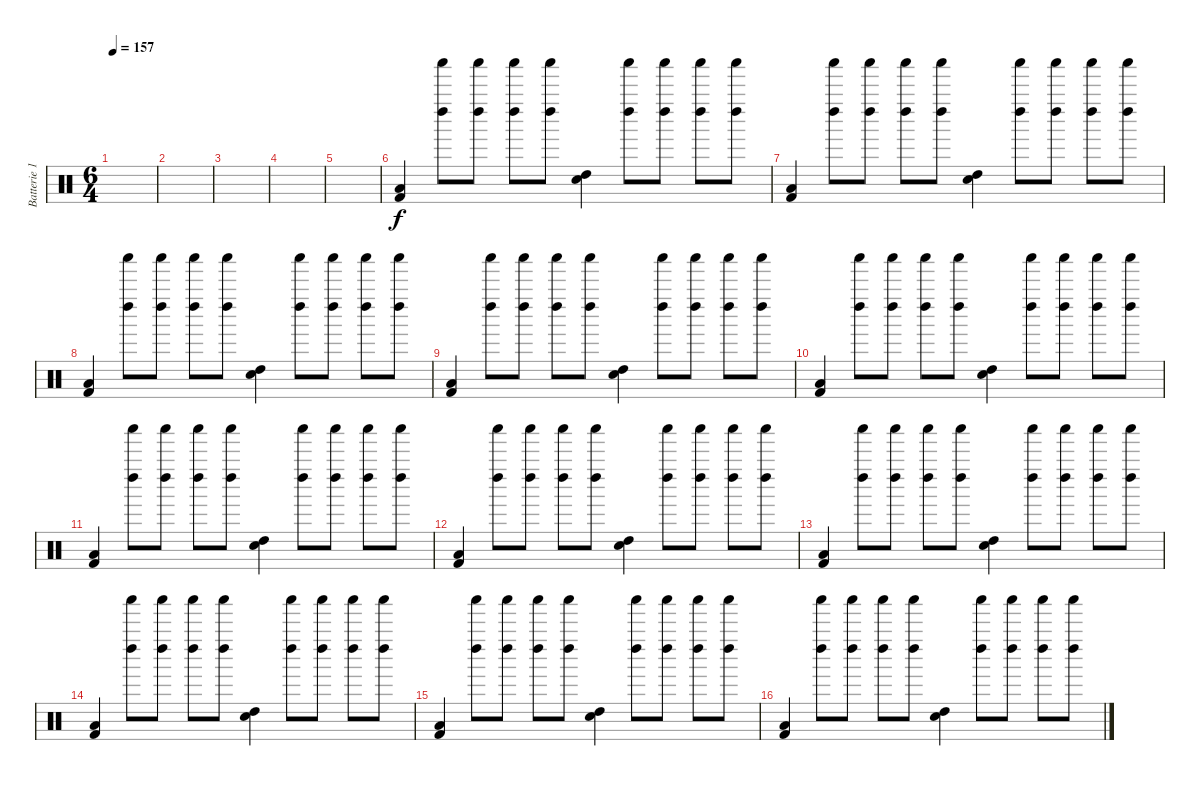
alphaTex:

\track ("Batterie 1" "Batterie 1") {instrument percussion}
\staff {score}
\articulation defaults
\ts (6 4)
\tempo 157
\clef neutral
\ks c
|
|
|
|
|
("Low Floor Tom (hit)" "Kick (hit) 2").4 ("Left Maraca (hit)" "Shaker (hit)").8 ("Left Maraca (hit)" "Shaker (hit)").8 ("Left Maraca (hit)" "Shaker (hit)").8 ("Left Maraca (hit)" "Shaker (hit)").8 ("High Tom (hit)" "Electric Snare (hit)").4 ("Left Maraca (hit)" "Shaker (hit)").8 ("Left Maraca (hit)" "Shaker (hit)").8 ("Left Maraca (hit)" "Shaker (hit)").8 ("Left Maraca (hit)" "Shaker (hit)").8 |
("Low Floor Tom (hit)" "Kick (hit) 2").4 ("Left Maraca (hit)" "Shaker (hit)").8 ("Left Maraca (hit)" "Shaker (hit)").8 ("Left Maraca (hit)" "Shaker (hit)").8 ("Left Maraca (hit)" "Shaker (hit)").8 ("High Tom (hit)" "Electric Snare (hit)").4 ("Left Maraca (hit)" "Shaker (hit)").8 ("Left Maraca (hit)" "Shaker (hit)").8 ("Left Maraca (hit)" "Shaker (hit)").8 ("Left Maraca (hit)" "Shaker (hit)").8 |
("Low Floor Tom (hit)" "Kick (hit) 2").4 ("Left Maraca (hit)" "Shaker (hit)").8 ("Left Maraca (hit)" "Shaker (hit)").8 ("Left Maraca (hit)" "Shaker (hit)").8 ("Left Maraca (hit)" "Shaker (hit)").8 ("High Tom (hit)" "Electric Snare (hit)").4 ("Left Maraca (hit)" "Shaker (hit)").8 ("Left Maraca (hit)" "Shaker (hit)").8 ("Left Maraca (hit)" "Shaker (hit)").8 ("Left Maraca (hit)" "Shaker (hit)").8 |
("Low Floor Tom (hit)" "Kick (hit) 2").4 ("Left Maraca (hit)" "Shaker (hit)").8 ("Left Maraca (hit)" "Shaker (hit)").8 ("Left Maraca (hit)" "Shaker (hit)").8 ("Left Maraca (hit)" "Shaker (hit)").8 ("High Tom (hit)" "Electric Snare (hit)").4 ("Left Maraca (hit)" "Shaker (hit)").8 ("Left Maraca (hit)" "Shaker (hit)").8 ("Left Maraca (hit)" "Shaker (hit)").8 ("Left Maraca (hit)" "Shaker (hit)").8 |
("Low Floor Tom (hit)" "Kick (hit) 2").4 ("Left Maraca (hit)" "Shaker (hit)").8 ("Left Maraca (hit)" "Shaker (hit)").8 ("Left Maraca (hit)" "Shaker (hit)").8 ("Left Maraca (hit)" "Shaker (hit)").8 ("High Tom (hit)" "Electric Snare (hit)").4 ("Left Maraca (hit)" "Shaker (hit)").8 ("Left Maraca (hit)" "Shaker (hit)").8 ("Left Maraca (hit)" "Shaker (hit)").8 ("Left Maraca (hit)" "Shaker (hit)").8 |
("Low Floor Tom (hit)" "Kick (hit) 2").4 ("Left Maraca (hit)" "Shaker (hit)").8 ("Left Maraca (hit)" "Shaker (hit)").8 ("Left Maraca (hit)" "Shaker (hit)").8 ("Left Maraca (hit)" "Shaker (hit)").8 ("High Tom (hit)" "Electric Snare (hit)").4 ("Left Maraca (hit)" "Shaker (hit)").8 ("Left Maraca (hit)" "Shaker (hit)").8 ("Left Maraca (hit)" "Shaker (hit)").8 ("Left Maraca (hit)" "Shaker (hit)").8 |
("Low Floor Tom (hit)" "Kick (hit) 2").4 ("Left Maraca (hit)" "Shaker (hit)").8 ("Left Maraca (hit)" "Shaker (hit)").8 ("Left Maraca (hit)" "Shaker (hit)").8 ("Left Maraca (hit)" "Shaker (hit)").8 ("High Tom (hit)" "Electric Snare (hit)").4 ("Left Maraca (hit)" "Shaker (hit)").8 ("Left Maraca (hit)" "Shaker (hit)").8 ("Left Maraca (hit)" "Shaker (hit)").8 ("Left Maraca (hit)" "Shaker (hit)").8 |
("Low Floor Tom (hit)" "Kick (hit) 2").4 ("Left Maraca (hit)" "Shaker (hit)").8 ("Left Maraca (hit)" "Shaker (hit)").8 ("Left Maraca (hit)" "Shaker (hit)").8 ("Left Maraca (hit)" "Shaker (hit)").8 ("High Tom (hit)" "Electric Snare (hit)").4 ("Left Maraca (hit)" "Shaker (hit)").8 ("Left Maraca (hit)" "Shaker (hit)").8 ("Left Maraca (hit)" "Shaker (hit)").8 ("Left Maraca (hit)" "Shaker (hit)").8 |
("Low Floor Tom (hit)" "Kick (hit) 2").4 ("Left Maraca (hit)" "Shaker (hit)").8 ("Left Maraca (hit)" "Shaker (hit)").8 ("Left Maraca (hit)" "Shaker (hit)").8 ("Left Maraca (hit)" "Shaker (hit)").8 ("High Tom (hit)" "Electric Snare (hit)").4 ("Left Maraca (hit)" "Shaker (hit)").8 ("Left Maraca (hit)" "Shaker (hit)").8 ("Left Maraca (hit)" "Shaker (hit)").8 ("Left Maraca (hit)" "Shaker (hit)").8 |
("Low Floor Tom (hit)" "Kick (hit) 2").4 ("Left Maraca (hit)" "Shaker (hit)").8 ("Left Maraca (hit)" "Shaker (hit)").8 ("Left Maraca (hit)" "Shaker (hit)").8 ("Left Maraca (hit)" "Shaker (hit)").8 ("High Tom (hit)" "Electric Snare (hit)").4 ("Left Maraca (hit)" "Shaker (hit)").8 ("Left Maraca (hit)" "Shaker (hit)").8 ("Left Maraca (hit)" "Shaker (hit)").8 ("Left Maraca (hit)" "Shaker (hit)").8 |
("Low Floor Tom (hit)" "Kick (hit) 2").4 ("Left Maraca (hit)" "Shaker (hit)").8 ("Left Maraca (hit)" "Shaker (hit)").8 ("Left Maraca (hit)" "Shaker (hit)").8 ("Left Maraca (hit)" "Shaker (hit)").8 ("High Tom (hit)" "Electric Snare (hit)").4 ("Left Maraca (hit)" "Shaker (hit)").8 ("Left Maraca (hit)" "Shaker (hit)").8 ("Left Maraca (hit)" "Shaker (hit)").8 ("Left Maraca (hit)" "Shaker (hit)").8
